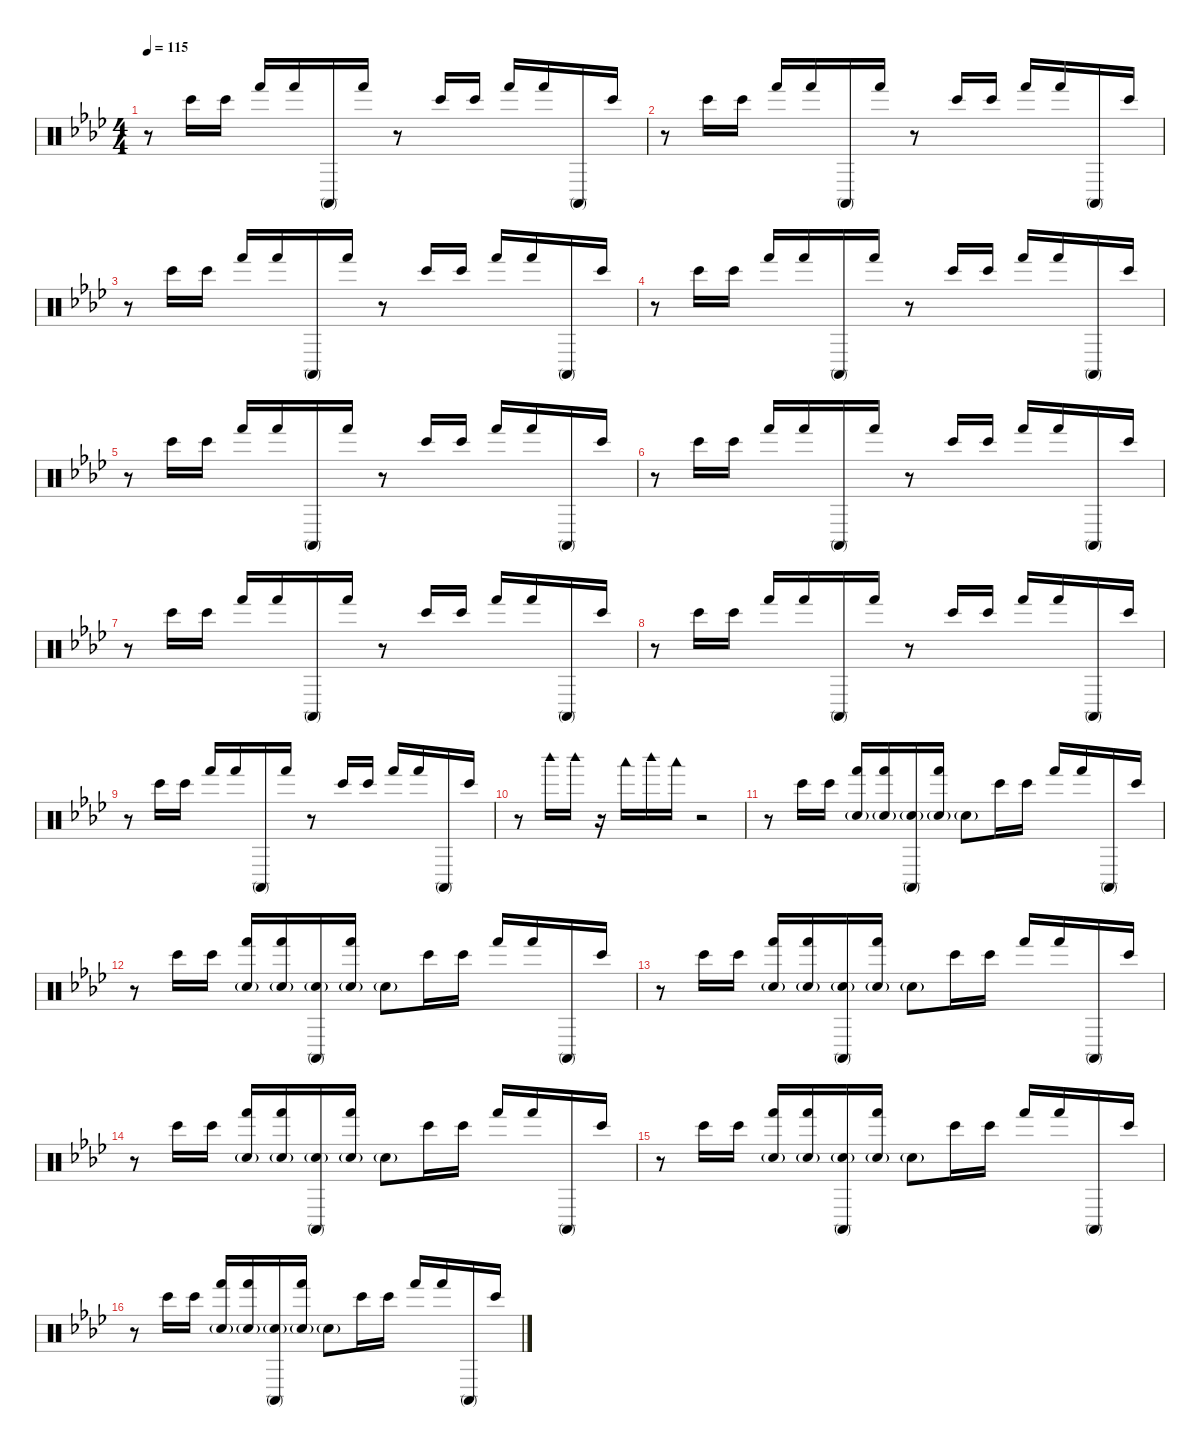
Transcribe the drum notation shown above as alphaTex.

\defaultSystemsLayout 4
\hideDynamics
\bracketExtendMode nobrackets
\singleTrackTrackNamePolicy hidden
\multiTrackTrackNamePolicy hidden
\firstSystemTrackNameMode fullname
\firstSystemTrackNameOrientation horizontal
\otherSystemsTrackNameOrientation horizontal
\track ("Percussion" "drm.") {instrument percussion}
\staff {score}
\articulation defaults
\ts (4 4)
\tempo 115
\clef neutral
\ks ab
r.8{dy p beam Down} "Bongo High (hit)"{acc forcenatural}.16{beam Down} "Bongo High (hit)"{acc forcenatural}.16{beam Down} "Hand (hit)"{acc forcenatural}.16{dy pp beam Up} "Hand (hit)"{acc forcenatural}.16{beam Up} "Conga high (mute)"{acc forcenatural}.16{beam Up} "Hand (hit)"{acc forcenatural}.16{beam Up} r.8{beam Up} "Bongo High (hit)"{acc forcenatural}.16{dy p beam Down} "Bongo High (hit)"{acc forcenatural}.16{beam Down} "Hand (hit)"{acc forcenatural}.16{beam Up} "Hand (hit)"{acc forcenatural}.16{dy pp beam Up} "Conga high (mute)"{acc forcenatural}.16{beam Up} "Bongo High (hit)"{acc forcenatural}.16{dy p beam Up} |
r.8{beam Down} "Bongo High (hit)"{acc forcenatural}.16{beam Down} "Bongo High (hit)"{acc forcenatural}.16{beam Down} "Hand (hit)"{acc forcenatural}.16{dy pp beam Up} "Hand (hit)"{acc forcenatural}.16{beam Up} "Conga high (mute)"{acc forcenatural}.16{beam Up} "Hand (hit)"{acc forcenatural}.16{beam Up} r.8{beam Up} "Bongo High (hit)"{acc forcenatural}.16{dy p beam Down} "Bongo High (hit)"{acc forcenatural}.16{beam Down} "Hand (hit)"{acc forcenatural}.16{beam Up} "Hand (hit)"{acc forcenatural}.16{dy pp beam Up} "Conga high (mute)"{acc forcenatural}.16{beam Up} "Bongo High (hit)"{acc forcenatural}.16{dy p beam Up} |
r.8{beam Down} "Bongo High (hit)"{acc forcenatural}.16{beam Down} "Bongo High (hit)"{acc forcenatural}.16{beam Down} "Hand (hit)"{acc forcenatural}.16{dy pp beam Up} "Hand (hit)"{acc forcenatural}.16{beam Up} "Conga high (mute)"{acc forcenatural}.16{beam Up} "Hand (hit)"{acc forcenatural}.16{beam Up} r.8{beam Up} "Bongo High (hit)"{acc forcenatural}.16{dy p beam Down} "Bongo High (hit)"{acc forcenatural}.16{beam Down} "Hand (hit)"{acc forcenatural}.16{beam Up} "Hand (hit)"{acc forcenatural}.16{dy pp beam Up} "Conga high (mute)"{acc forcenatural}.16{beam Up} "Bongo High (hit)"{acc forcenatural}.16{dy p beam Up} |
r.8{beam Down} "Bongo High (hit)"{acc forcenatural}.16{beam Down} "Bongo High (hit)"{acc forcenatural}.16{beam Down} "Hand (hit)"{acc forcenatural}.16{dy pp beam Up} "Hand (hit)"{acc forcenatural}.16{beam Up} "Conga high (mute)"{acc forcenatural}.16{beam Up} "Hand (hit)"{acc forcenatural}.16{beam Up} r.8{beam Up} "Bongo High (hit)"{acc forcenatural}.16{dy p beam Down} "Bongo High (hit)"{acc forcenatural}.16{beam Down} "Hand (hit)"{acc forcenatural}.16{beam Up} "Hand (hit)"{acc forcenatural}.16{dy pp beam Up} "Conga high (mute)"{acc forcenatural}.16{beam Up} "Bongo High (hit)"{acc forcenatural}.16{dy p beam Up} |
r.8{beam Down} "Bongo High (hit)"{acc forcenatural}.16{beam Down} "Bongo High (hit)"{acc forcenatural}.16{beam Down} "Hand (hit)"{acc forcenatural}.16{dy pp beam Up} "Hand (hit)"{acc forcenatural}.16{beam Up} "Conga high (mute)"{acc forcenatural}.16{beam Up} "Hand (hit)"{acc forcenatural}.16{beam Up} r.8{beam Up} "Bongo High (hit)"{acc forcenatural}.16{dy p beam Down} "Bongo High (hit)"{acc forcenatural}.16{beam Down} "Hand (hit)"{acc forcenatural}.16{beam Up} "Hand (hit)"{acc forcenatural}.16{dy pp beam Up} "Conga high (mute)"{acc forcenatural}.16{beam Up} "Bongo High (hit)"{acc forcenatural}.16{dy p beam Up} |
r.8{beam Down} "Bongo High (hit)"{acc forcenatural}.16{beam Down} "Bongo High (hit)"{acc forcenatural}.16{beam Down} "Hand (hit)"{acc forcenatural}.16{dy pp beam Up} "Hand (hit)"{acc forcenatural}.16{beam Up} "Conga high (mute)"{acc forcenatural}.16{beam Up} "Hand (hit)"{acc forcenatural}.16{beam Up} r.8{beam Up} "Bongo High (hit)"{acc forcenatural}.16{dy p beam Down} "Bongo High (hit)"{acc forcenatural}.16{beam Down} "Hand (hit)"{acc forcenatural}.16{beam Up} "Hand (hit)"{acc forcenatural}.16{dy pp beam Up} "Conga high (mute)"{acc forcenatural}.16{beam Up} "Bongo High (hit)"{acc forcenatural}.16{dy p beam Up} |
r.8{beam Down} "Bongo High (hit)"{acc forcenatural}.16{beam Down} "Bongo High (hit)"{acc forcenatural}.16{beam Down} "Hand (hit)"{acc forcenatural}.16{dy pp beam Up} "Hand (hit)"{acc forcenatural}.16{beam Up} "Conga high (mute)"{acc forcenatural}.16{beam Up} "Hand (hit)"{acc forcenatural}.16{beam Up} r.8{beam Up} "Bongo High (hit)"{acc forcenatural}.16{dy p beam Down} "Bongo High (hit)"{acc forcenatural}.16{beam Down} "Hand (hit)"{acc forcenatural}.16{beam Up} "Hand (hit)"{acc forcenatural}.16{dy pp beam Up} "Conga high (mute)"{acc forcenatural}.16{beam Up} "Bongo High (hit)"{acc forcenatural}.16{dy p beam Up} |
r.8{beam Down} "Bongo High (hit)"{acc forcenatural}.16{beam Down} "Bongo High (hit)"{acc forcenatural}.16{beam Down} "Hand (hit)"{acc forcenatural}.16{dy pp beam Up} "Hand (hit)"{acc forcenatural}.16{beam Up} "Conga high (mute)"{acc forcenatural}.16{beam Up} "Hand (hit)"{acc forcenatural}.16{beam Up} r.8{beam Up} "Bongo High (hit)"{acc forcenatural}.16{dy p beam Down} "Bongo High (hit)"{acc forcenatural}.16{beam Down} "Hand (hit)"{acc forcenatural}.16{beam Up} "Hand (hit)"{acc forcenatural}.16{dy pp beam Up} "Conga high (mute)"{acc forcenatural}.16{beam Up} "Bongo High (hit)"{acc forcenatural}.16{dy p beam Up} |
r.8{beam Down} "Bongo High (hit)"{acc forcenatural}.16{beam Down} "Bongo High (hit)"{acc forcenatural}.16{beam Down} "Hand (hit)"{acc forcenatural}.16{dy pp beam Up} "Hand (hit)"{acc forcenatural}.16{beam Up} "Conga high (mute)"{acc forcenatural}.16{beam Up} "Hand (hit)"{acc forcenatural}.16{beam Up} r.8{beam Up} "Bongo High (hit)"{acc forcenatural}.16{dy p beam Down} "Bongo High (hit)"{acc forcenatural}.16{beam Down} "Hand (hit)"{acc forcenatural}.16{beam Up} "Hand (hit)"{acc forcenatural}.16{dy pp beam Up} "Conga high (mute)"{acc forcenatural}.16{beam Up} "Bongo High (hit)"{acc forcenatural}.16{dy p beam Up} |
r.8{beam Down} "Woodblock high (hit)"{acc forcenatural}.16{dy mp beam Down} "Woodblock high (hit)"{acc forcenatural}.16{beam Down} r.16{beam Down} "Woodblock low (hit)"{acc forcenatural}.16{beam Down} "Woodblock high (hit)"{acc forcenatural}.16{beam Down} "Woodblock low (hit)"{acc forcenatural}.16{beam Down} r.2{beam Down} |
r.8{beam Down} "Bongo High (hit)"{acc forcenatural}.16{dy p beam Down} "Bongo High (hit)"{acc forcenatural}.16{beam Down} ("Snare (hit) 2"{g acc forcenatural} "Hand (hit)"{acc forcenatural}).16{beam Up} ("Snare (hit) 2"{g acc forcenatural} "Hand (hit)"{acc forcenatural}).16{beam Up} ("Snare (hit) 2"{g acc forcenatural} "Conga high (mute)"{acc forcenatural}).16{beam Up} ("Snare (hit) 2"{g acc forcenatural} "Hand (hit)"{acc forcenatural}).16{beam Up} "Snare (hit) 2"{g acc forcenatural}.8{dy mf beam Down} "Bongo High (hit)"{acc forcenatural}.16{dy p beam Down} "Bongo High (hit)"{acc forcenatural}.16{beam Down} "Hand (hit)"{acc forcenatural}.16{beam Up} "Hand (hit)"{acc forcenatural}.16{dy pp beam Up} "Conga high (mute)"{acc forcenatural}.16{beam Up} "Bongo High (hit)"{acc forcenatural}.16{dy p beam Up} |
r.8{beam Down} "Bongo High (hit)"{acc forcenatural}.16{beam Down} "Bongo High (hit)"{acc forcenatural}.16{beam Down} ("Snare (hit) 2"{g acc forcenatural} "Hand (hit)"{acc forcenatural}).16{beam Up} ("Snare (hit) 2"{g acc forcenatural} "Hand (hit)"{acc forcenatural}).16{beam Up} ("Snare (hit) 2"{g acc forcenatural} "Conga high (mute)"{acc forcenatural}).16{beam Up} ("Snare (hit) 2"{g acc forcenatural} "Hand (hit)"{acc forcenatural}).16{beam Up} "Snare (hit) 2"{g acc forcenatural}.8{dy mf beam Down} "Bongo High (hit)"{acc forcenatural}.16{dy p beam Down} "Bongo High (hit)"{acc forcenatural}.16{beam Down} "Hand (hit)"{acc forcenatural}.16{beam Up} "Hand (hit)"{acc forcenatural}.16{dy pp beam Up} "Conga high (mute)"{acc forcenatural}.16{beam Up} "Bongo High (hit)"{acc forcenatural}.16{dy p beam Up} |
r.8{beam Down} "Bongo High (hit)"{acc forcenatural}.16{beam Down} "Bongo High (hit)"{acc forcenatural}.16{beam Down} ("Snare (hit) 2"{g acc forcenatural} "Hand (hit)"{acc forcenatural}).16{beam Up} ("Snare (hit) 2"{g acc forcenatural} "Hand (hit)"{acc forcenatural}).16{beam Up} ("Snare (hit) 2"{g acc forcenatural} "Conga high (mute)"{acc forcenatural}).16{beam Up} ("Snare (hit) 2"{g acc forcenatural} "Hand (hit)"{acc forcenatural}).16{beam Up} "Snare (hit) 2"{g acc forcenatural}.8{dy mf beam Down} "Bongo High (hit)"{acc forcenatural}.16{dy p beam Down} "Bongo High (hit)"{acc forcenatural}.16{beam Down} "Hand (hit)"{acc forcenatural}.16{beam Up} "Hand (hit)"{acc forcenatural}.16{dy pp beam Up} "Conga high (mute)"{acc forcenatural}.16{beam Up} "Bongo High (hit)"{acc forcenatural}.16{dy p beam Up} |
r.8{beam Down} "Bongo High (hit)"{acc forcenatural}.16{beam Down} "Bongo High (hit)"{acc forcenatural}.16{beam Down} ("Snare (hit) 2"{g acc forcenatural} "Hand (hit)"{acc forcenatural}).16{beam Up} ("Snare (hit) 2"{g acc forcenatural} "Hand (hit)"{acc forcenatural}).16{beam Up} ("Snare (hit) 2"{g acc forcenatural} "Conga high (mute)"{acc forcenatural}).16{beam Up} ("Snare (hit) 2"{g acc forcenatural} "Hand (hit)"{acc forcenatural}).16{beam Up} "Snare (hit) 2"{g acc forcenatural}.8{dy mf beam Down} "Bongo High (hit)"{acc forcenatural}.16{dy p beam Down} "Bongo High (hit)"{acc forcenatural}.16{beam Down} "Hand (hit)"{acc forcenatural}.16{beam Up} "Hand (hit)"{acc forcenatural}.16{dy pp beam Up} "Conga high (mute)"{acc forcenatural}.16{beam Up} "Bongo High (hit)"{acc forcenatural}.16{dy p beam Up} |
r.8{beam Down} "Bongo High (hit)"{acc forcenatural}.16{beam Down} "Bongo High (hit)"{acc forcenatural}.16{beam Down} ("Snare (hit) 2"{g acc forcenatural} "Hand (hit)"{acc forcenatural}).16{beam Up} ("Snare (hit) 2"{g acc forcenatural} "Hand (hit)"{acc forcenatural}).16{beam Up} ("Snare (hit) 2"{g acc forcenatural} "Conga high (mute)"{acc forcenatural}).16{beam Up} ("Snare (hit) 2"{g acc forcenatural} "Hand (hit)"{acc forcenatural}).16{beam Up} "Snare (hit) 2"{g acc forcenatural}.8{dy mf beam Down} "Bongo High (hit)"{acc forcenatural}.16{dy p beam Down} "Bongo High (hit)"{acc forcenatural}.16{beam Down} "Hand (hit)"{acc forcenatural}.16{beam Up} "Hand (hit)"{acc forcenatural}.16{dy pp beam Up} "Conga high (mute)"{acc forcenatural}.16{beam Up} "Bongo High (hit)"{acc forcenatural}.16{dy p beam Up} |
r.8{beam Down} "Bongo High (hit)"{acc forcenatural}.16{beam Down} "Bongo High (hit)"{acc forcenatural}.16{beam Down} ("Snare (hit) 2"{g acc forcenatural} "Hand (hit)"{acc forcenatural}).16{beam Up} ("Snare (hit) 2"{g acc forcenatural} "Hand (hit)"{acc forcenatural}).16{beam Up} ("Snare (hit) 2"{g acc forcenatural} "Conga high (mute)"{acc forcenatural}).16{beam Up} ("Snare (hit) 2"{g acc forcenatural} "Hand (hit)"{acc forcenatural}).16{beam Up} "Snare (hit) 2"{g acc forcenatural}.8{dy mf beam Down} "Bongo High (hit)"{acc forcenatural}.16{dy p beam Down} "Bongo High (hit)"{acc forcenatural}.16{beam Down} "Hand (hit)"{acc forcenatural}.16{beam Up} "Hand (hit)"{acc forcenatural}.16{dy pp beam Up} "Conga high (mute)"{acc forcenatural}.16{beam Up} "Bongo High (hit)"{acc forcenatural}.16{dy p beam Up}
